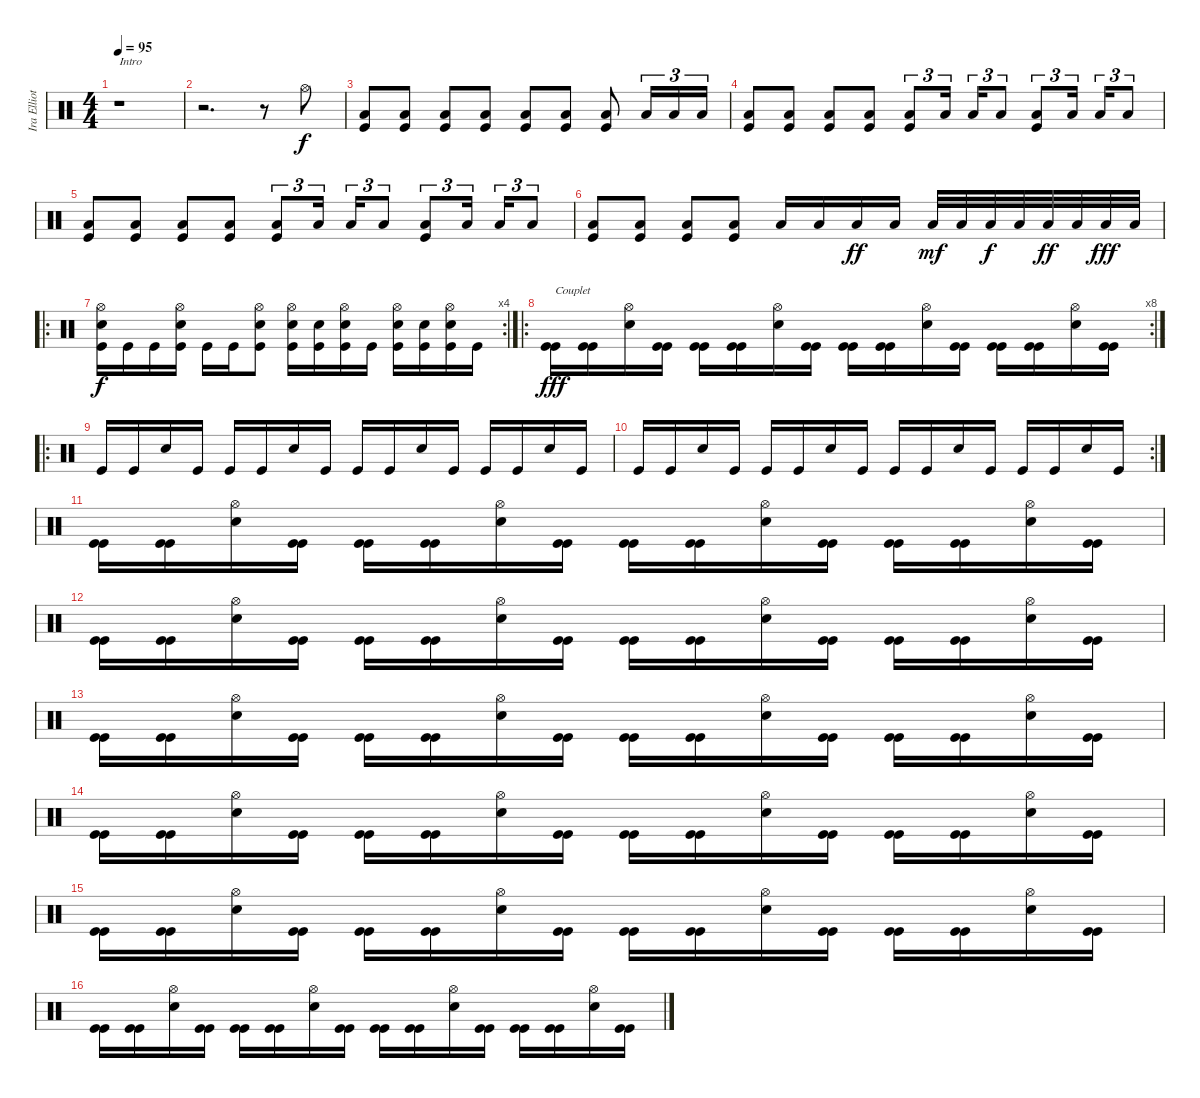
\track ("Ira Elliott" "Ira Elliot") {instrument percussion}
\staff {score}
\articulation defaults
\ts (4 4)
\tempo 95
\clef neutral
\ks c
r.1{txt "Intro" dy f} |
r.2{d} r.8 "Hi-Hat (open)".8 |
("Kick (hit)" "Low Floor Tom (hit)").8 ("Kick (hit)" "Low Floor Tom (hit)").8 ("Kick (hit)" "Low Floor Tom (hit)").8 ("Kick (hit)" "Low Floor Tom (hit)").8 ("Kick (hit)" "Low Floor Tom (hit)").8 ("Kick (hit)" "Low Floor Tom (hit)").8 ("Kick (hit)" "Low Floor Tom (hit)").8 "Low Floor Tom (hit)".16{tu (3 2)} "Low Floor Tom (hit)".16{tu (3 2)} "Low Floor Tom (hit)".16{tu (3 2)} |
("Kick (hit)" "Low Floor Tom (hit)").8 ("Kick (hit)" "Low Floor Tom (hit)").8 ("Kick (hit)" "Low Floor Tom (hit)").8 ("Kick (hit)" "Low Floor Tom (hit)").8 ("Kick (hit)" "Low Floor Tom (hit)").8{tu (3 2)} "Low Floor Tom (hit)".16{tu (3 2)} "Low Floor Tom (hit)".16{tu (3 2)} "Low Floor Tom (hit)".8{tu (3 2)} ("Kick (hit)" "Low Floor Tom (hit)").8{tu (3 2)} "Low Floor Tom (hit)".16{tu (3 2)} "Low Floor Tom (hit)".16{tu (3 2)} "Low Floor Tom (hit)".8{tu (3 2)} |
("Kick (hit)" "Low Floor Tom (hit)").8 ("Kick (hit)" "Low Floor Tom (hit)").8 ("Kick (hit)" "Low Floor Tom (hit)").8 ("Kick (hit)" "Low Floor Tom (hit)").8 ("Kick (hit)" "Low Floor Tom (hit)").8{tu (3 2)} "Low Floor Tom (hit)".16{tu (3 2)} "Low Floor Tom (hit)".16{tu (3 2)} "Low Floor Tom (hit)".8{tu (3 2)} ("Kick (hit)" "Low Floor Tom (hit)").8{tu (3 2)} "Low Floor Tom (hit)".16{tu (3 2)} "Low Floor Tom (hit)".16{tu (3 2)} "Low Floor Tom (hit)".8{tu (3 2)} |
("Kick (hit)" "Low Floor Tom (hit)").8 ("Kick (hit)" "Low Floor Tom (hit)").8 ("Kick (hit)" "Low Floor Tom (hit)").8 ("Kick (hit)" "Low Floor Tom (hit)").8 "Low Floor Tom (hit)".16 "Low Floor Tom (hit)".16 "Low Floor Tom (hit)".16{dy ff} "Low Floor Tom (hit)".16 "Low Floor Tom (hit)".32{dy mf} "Low Floor Tom (hit)".32 "Low Floor Tom (hit)".32{dy f} "Low Floor Tom (hit)".32 "Low Floor Tom (hit)".32{dy ff} "Low Floor Tom (hit)".32 "Low Floor Tom (hit)".32{dy fff} "Low Floor Tom (hit)".32 |
\ro
\rc 4
("Hi-Hat (open)" "Snare (hit) 2" "Kick (hit)").16{dy f} "Kick (hit)".16 "Kick (hit)".16 ("Hi-Hat (open)" "Snare (hit) 2" "Kick (hit)").16 "Kick (hit)".16 "Kick (hit)".16 ("Snare (hit) 2" "Hi-Hat (open)" "Kick (hit)").8 ("Hi-Hat (open)" "Snare (hit) 2" "Kick (hit)").16 ("Snare (hit) 2" "Kick (hit)").16 ("Hi-Hat (open)" "Snare (hit) 2" "Kick (hit)").16 "Kick (hit)".16 ("Hi-Hat (open)" "Snare (hit) 2" "Kick (hit)").16 ("Snare (hit) 2" "Kick (hit)").16 ("Hi-Hat (open)" "Snare (hit) 2" "Kick (hit)").16 "Kick (hit)".16 |
\ro
\rc 8
("Kick (hit)" "Kick (hit)").16{txt "Couplet" dy fff} ("Kick (hit)" "Kick (hit)").16 ("Snare (hit) 2" "Hi-Hat (open)").16 ("Kick (hit)" "Kick (hit)").16 ("Kick (hit)" "Kick (hit)").16 ("Kick (hit)" "Kick (hit)").16 ("Snare (hit) 2" "Hi-Hat (open)").16 ("Kick (hit)" "Kick (hit)").16 ("Kick (hit)" "Kick (hit)").16 ("Kick (hit)" "Kick (hit)").16 ("Snare (hit) 2" "Hi-Hat (open)").16 ("Kick (hit)" "Kick (hit)").16 ("Kick (hit)" "Kick (hit)").16 ("Kick (hit)" "Kick (hit)").16 ("Snare (hit) 2" "Hi-Hat (open)").16 ("Kick (hit)" "Kick (hit)").16 |
\ro "Kick (hit)".16 "Kick (hit)".16 "Snare (hit) 2".16 "Kick (hit)".16 "Kick (hit)".16 "Kick (hit)".16 "Snare (hit) 2".16 "Kick (hit)".16 "Kick (hit)".16 "Kick (hit)".16 "Snare (hit) 2".16 "Kick (hit)".16 "Kick (hit)".16 "Kick (hit)".16 "Snare (hit) 2".16 "Kick (hit)".16
|
\rc 2 "Kick (hit)".16 "Kick (hit)".16 "Snare (hit) 2".16 "Kick (hit)".16 "Kick (hit)".16 "Kick (hit)".16 "Snare (hit) 2".16 "Kick (hit)".16 "Kick (hit)".16 "Kick (hit)".16 "Snare (hit) 2".16 "Kick (hit)".16 "Kick (hit)".16 "Kick (hit)".16 "Snare (hit) 2".16 "Kick (hit)".16
|
("Kick (hit)" "Kick (hit)").16 ("Kick (hit)" "Kick (hit)").16 ("Snare (hit) 2" "Hi-Hat (open)").16 ("Kick (hit)" "Kick (hit)").16 ("Kick (hit)" "Kick (hit)").16 ("Kick (hit)" "Kick (hit)").16 ("Snare (hit) 2" "Hi-Hat (open)").16 ("Kick (hit)" "Kick (hit)").16 ("Kick (hit)" "Kick (hit)").16 ("Kick (hit)" "Kick (hit)").16 ("Snare (hit) 2" "Hi-Hat (open)").16 ("Kick (hit)" "Kick (hit)").16 ("Kick (hit)" "Kick (hit)").16 ("Kick (hit)" "Kick (hit)").16 ("Snare (hit) 2" "Hi-Hat (open)").16 ("Kick (hit)" "Kick (hit)").16 |
("Kick (hit)" "Kick (hit)").16 ("Kick (hit)" "Kick (hit)").16 ("Snare (hit) 2" "Hi-Hat (open)").16 ("Kick (hit)" "Kick (hit)").16 ("Kick (hit)" "Kick (hit)").16 ("Kick (hit)" "Kick (hit)").16 ("Snare (hit) 2" "Hi-Hat (open)").16 ("Kick (hit)" "Kick (hit)").16 ("Kick (hit)" "Kick (hit)").16 ("Kick (hit)" "Kick (hit)").16 ("Snare (hit) 2" "Hi-Hat (open)").16 ("Kick (hit)" "Kick (hit)").16 ("Kick (hit)" "Kick (hit)").16 ("Kick (hit)" "Kick (hit)").16 ("Snare (hit) 2" "Hi-Hat (open)").16 ("Kick (hit)" "Kick (hit)").16 |
("Kick (hit)" "Kick (hit)").16 ("Kick (hit)" "Kick (hit)").16 ("Snare (hit) 2" "Hi-Hat (open)").16 ("Kick (hit)" "Kick (hit)").16 ("Kick (hit)" "Kick (hit)").16 ("Kick (hit)" "Kick (hit)").16 ("Snare (hit) 2" "Hi-Hat (open)").16 ("Kick (hit)" "Kick (hit)").16 ("Kick (hit)" "Kick (hit)").16 ("Kick (hit)" "Kick (hit)").16 ("Snare (hit) 2" "Hi-Hat (open)").16 ("Kick (hit)" "Kick (hit)").16 ("Kick (hit)" "Kick (hit)").16 ("Kick (hit)" "Kick (hit)").16 ("Snare (hit) 2" "Hi-Hat (open)").16 ("Kick (hit)" "Kick (hit)").16 |
("Kick (hit)" "Kick (hit)").16 ("Kick (hit)" "Kick (hit)").16 ("Snare (hit) 2" "Hi-Hat (open)").16 ("Kick (hit)" "Kick (hit)").16 ("Kick (hit)" "Kick (hit)").16 ("Kick (hit)" "Kick (hit)").16 ("Snare (hit) 2" "Hi-Hat (open)").16 ("Kick (hit)" "Kick (hit)").16 ("Kick (hit)" "Kick (hit)").16 ("Kick (hit)" "Kick (hit)").16 ("Snare (hit) 2" "Hi-Hat (open)").16 ("Kick (hit)" "Kick (hit)").16 ("Kick (hit)" "Kick (hit)").16 ("Kick (hit)" "Kick (hit)").16 ("Snare (hit) 2" "Hi-Hat (open)").16 ("Kick (hit)" "Kick (hit)").16 |
("Kick (hit)" "Kick (hit)").16 ("Kick (hit)" "Kick (hit)").16 ("Snare (hit) 2" "Hi-Hat (open)").16 ("Kick (hit)" "Kick (hit)").16 ("Kick (hit)" "Kick (hit)").16 ("Kick (hit)" "Kick (hit)").16 ("Snare (hit) 2" "Hi-Hat (open)").16 ("Kick (hit)" "Kick (hit)").16 ("Kick (hit)" "Kick (hit)").16 ("Kick (hit)" "Kick (hit)").16 ("Snare (hit) 2" "Hi-Hat (open)").16 ("Kick (hit)" "Kick (hit)").16 ("Kick (hit)" "Kick (hit)").16 ("Kick (hit)" "Kick (hit)").16 ("Snare (hit) 2" "Hi-Hat (open)").16 ("Kick (hit)" "Kick (hit)").16 |
("Kick (hit)" "Kick (hit)").16 ("Kick (hit)" "Kick (hit)").16 ("Snare (hit) 2" "Hi-Hat (open)").16 ("Kick (hit)" "Kick (hit)").16 ("Kick (hit)" "Kick (hit)").16 ("Kick (hit)" "Kick (hit)").16 ("Snare (hit) 2" "Hi-Hat (open)").16 ("Kick (hit)" "Kick (hit)").16 ("Kick (hit)" "Kick (hit)").16 ("Kick (hit)" "Kick (hit)").16 ("Snare (hit) 2" "Hi-Hat (open)").16 ("Kick (hit)" "Kick (hit)").16 ("Kick (hit)" "Kick (hit)").16 ("Kick (hit)" "Kick (hit)").16 ("Snare (hit) 2" "Hi-Hat (open)").16 ("Kick (hit)" "Kick (hit)").16
